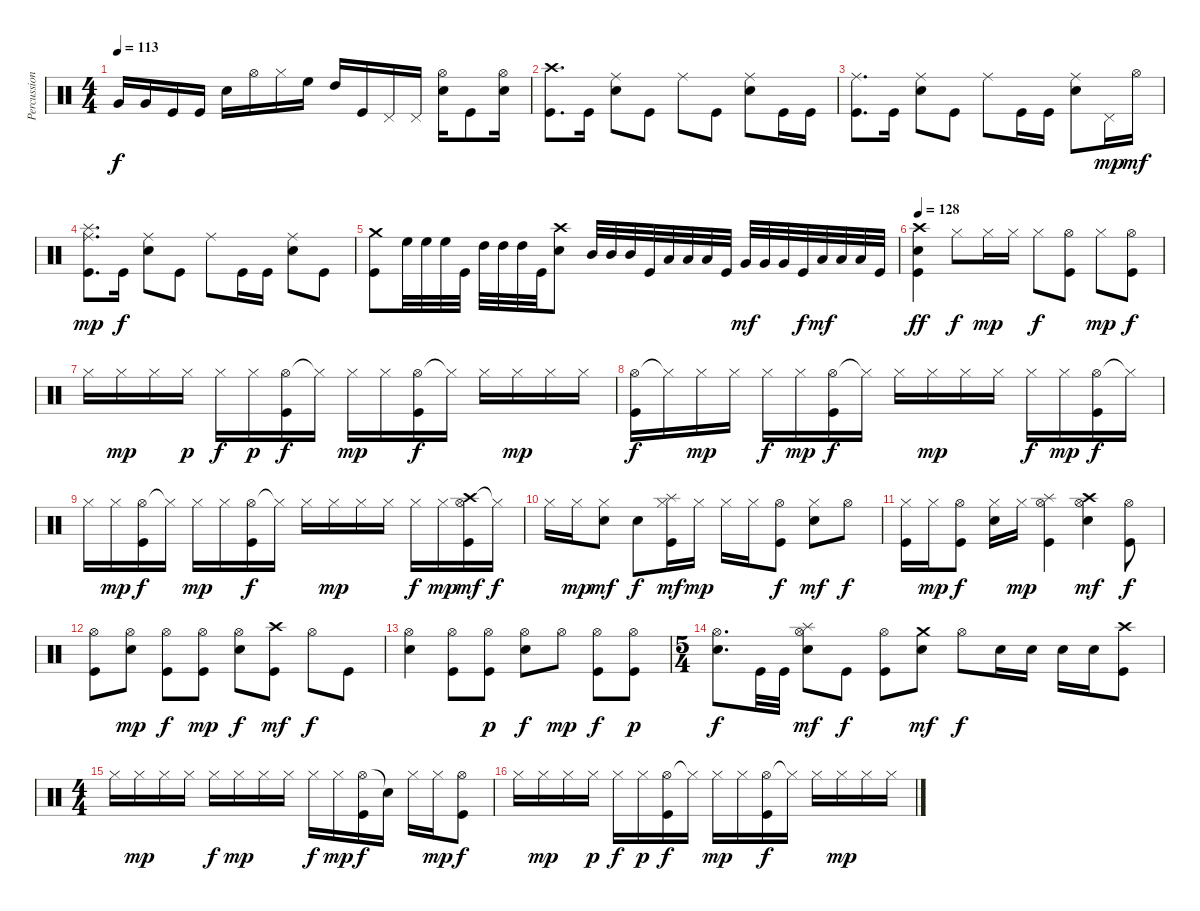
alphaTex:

\track ("Percussioni" "Percussion") {instrument percussion}
\staff {score}
\articulation defaults
\ts (4 4)
\tempo 113
\clef neutral
\ks c "Very Low Tom (hit)".16{dy f} "Very Low Tom (hit)".16 "Kick (hit)".16 "Kick (hit)".16 "Snare (hit) 2".16 "Hi-Hat (open)".16 "Hi-Hat (closed)".16 "High Floor Tom (hit)".16 "High Tom (hit)".16 "Kick (hit)".16 "Pedal Hi-Hat (hit)".16 "Pedal Hi-Hat (hit)".16
("Hi-Hat (open)" "Snare (hit) 2").16 "Kick (hit)".8 ("Hi-Hat (open)" "Snare (hit) 2").16 |
("Crash high (hit)" "Kick (hit)").8{d} "Kick (hit)".16 ("Ride (middle)" "Snare (hit) 2").8 "Kick (hit)".8 "Ride (middle)".8 "Kick (hit)".8 ("Ride (middle)" "Snare (hit) 2").8 "Kick (hit)".16 "Kick (hit)".16 |
("Ride (middle)" "Kick (hit)").8{d} "Kick (hit)".16 ("Ride (middle)" "Snare (hit) 2").8 "Kick (hit)".8 "Ride (middle)".8 "Kick (hit)".16 "Kick (hit)".16 ("Ride (middle)" "Snare (hit) 2").8 "Pedal Hi-Hat (hit)".16{dy mp} "Hi-Hat (open)".16{dy mf} |
("Splash (hit)" "Ride (middle)" "Kick (hit)").8{d dy mp} "Kick (hit)".16{dy f} ("Ride (middle)" "Snare (hit) 2").8 "Kick (hit)".8 "Ride (middle)".8 "Kick (hit)".16 "Kick (hit)".16 ("Ride (middle)" "Snare (hit) 2").8 "Kick (hit)".8 |
("Crash medium (hit)" "Kick (hit)").8 "High Floor Tom (hit)".32 "High Floor Tom (hit)".32 "High Floor Tom (hit)".32 "Kick (hit)".32 "High Tom (hit)".32 "High Tom (hit)".32 "High Tom (hit)".32 "Kick (hit)".32 ("Crash high (hit)" "Snare (hit) 2").8 "Mid Tom (hit)".32 "Mid Tom (hit)".32 "Mid Tom (hit)".32 "Kick (hit)".32 "Low Tom (hit)".32 "Low Tom (hit)".32 "Low Tom (hit)".32 "Kick (hit)".32 "Very Low Tom (hit)".32{dy mf} "Very Low Tom (hit)".32 "Very Low Tom (hit)".32 "Kick (hit)".32{dy f} "Low Floor Tom (hit)".32{dy mf} "Low Floor Tom (hit)".32 "Low Floor Tom (hit)".32 "Kick (hit)".32 |
\tempo 128
("Crash high (hit)" "Snare (hit) 2" "Kick (hit)").4{dy ff} "Hi-Hat (closed)".8{dy f} "Hi-Hat (closed)".16{dy mp} "Hi-Hat (closed)".16 "Hi-Hat (closed)".8{dy f} ("Hi-Hat (open)" "Kick (hit)").8 "Hi-Hat (closed)".8{dy mp} ("Hi-Hat (open)" "Kick (hit)").8{dy f} |
"Hi-Hat (closed)".16 "Hi-Hat (closed)".16{dy mp} "Hi-Hat (closed)".16 "Hi-Hat (closed)".16{dy p} "Hi-Hat (closed)".16{dy f} "Hi-Hat (closed)".16{dy p} ("Hi-Hat (open)" "Kick (hit)").16{dy f} "Hi-Hat (closed)"{t}.16 "Hi-Hat (closed)".16{dy mp} "Hi-Hat (closed)".16 ("Hi-Hat (open)" "Kick (hit)").16{dy f} "Hi-Hat (closed)"{t}.16 "Hi-Hat (closed)".16 "Hi-Hat (closed)".16{dy mp} "Hi-Hat (closed)".16 "Hi-Hat (closed)".16 |
("Hi-Hat (open)" "Kick (hit)").16{dy f} "Hi-Hat (closed)"{t}.16 "Hi-Hat (closed)".16{dy mp} "Hi-Hat (closed)".16 "Hi-Hat (closed)".16{dy f} "Hi-Hat (closed)".16{dy mp} ("Hi-Hat (open)" "Kick (hit)").16{dy f} "Hi-Hat (closed)"{t}.16 "Hi-Hat (closed)".16 "Hi-Hat (closed)".16{dy mp} "Hi-Hat (closed)".16 "Hi-Hat (closed)".16 "Hi-Hat (closed)".16{dy f} "Hi-Hat (closed)".16{dy mp} ("Hi-Hat (open)" "Kick (hit)").16{dy f} "Hi-Hat (closed)"{t}.16 |
"Hi-Hat (closed)".16 "Hi-Hat (closed)".16{dy mp} ("Hi-Hat (open)" "Kick (hit)").16{dy f} "Hi-Hat (closed)"{t}.16 "Hi-Hat (closed)".16{dy mp} "Hi-Hat (closed)".16 ("Hi-Hat (open)" "Kick (hit)").16{dy f} "Hi-Hat (closed)"{t}.16 "Hi-Hat (closed)".16 "Hi-Hat (closed)".16{dy mp} "Hi-Hat (closed)".16 "Hi-Hat (closed)".16 "Hi-Hat (closed)".16{dy f} "Hi-Hat (closed)".16{dy mp} ("Crash high (hit)" "Hi-Hat (open)" "Kick (hit)").16{dy mf} "Hi-Hat (closed)"{t}.16{dy f} |
"Hi-Hat (closed)".16 "Hi-Hat (closed)".16{dy mp} ("Hi-Hat (closed)" "Snare (hit) 2").8{dy mf} "Snare (hit) 2".8{dy f} ("Splash (hit)" "Hi-Hat (closed)" "Kick (hit)").16{dy mf} "Hi-Hat (closed)".16{dy mp} "Hi-Hat (closed)".16 "Hi-Hat (closed)".16 ("Hi-Hat (open)" "Kick (hit)").8{dy f} ("Hi-Hat (closed)" "Snare (hit) 2").8{dy mf} "Hi-Hat (open)".8{dy f} |
("Hi-Hat (closed)" "Kick (hit)").16 "Hi-Hat (closed)".16{dy mp} ("Hi-Hat (open)" "Kick (hit)").8{dy f} ("Hi-Hat (closed)" "Snare (hit) 2").16 "Hi-Hat (closed)".16{dy mp} ("Splash (hit)" "Hi-Hat (open)" "Kick (hit)").4 ("Crash high (hit)" "Hi-Hat (open)" "Snare (hit) 2").4{dy mf} ("Hi-Hat (open)" "Kick (hit)").8{dy f} |
("Hi-Hat (open)" "Kick (hit)").8 ("Hi-Hat (open)" "Snare (hit) 2").8{dy mp} ("Hi-Hat (open)" "Kick (hit)").8{dy f} ("Hi-Hat (open)" "Kick (hit)").8{dy mp} ("Hi-Hat (open)" "Snare (hit) 2").8{dy f} ("Crash high (hit)" "Kick (hit)").8{dy mf} "Hi-Hat (open)".8{dy f} "Kick (hit)".8 |
("Hi-Hat (open)" "Snare (hit) 2").4 ("Hi-Hat (open)" "Kick (hit)").8 ("Hi-Hat (open)" "Kick (hit)").8{dy p} ("Hi-Hat (open)" "Snare (hit) 2").8{dy f} "Hi-Hat (open)".8{dy mp} ("Hi-Hat (open)" "Kick (hit)").8{dy f} ("Hi-Hat (open)" "Kick (hit)").8{dy p} |
\ts (5 4)
("Hi-Hat (open)" "Snare (hit) 2").8{d dy f} "Kick (hit)".32 "Kick (hit)".32 ("Splash (hit)" "Hi-Hat (open)" "Snare (hit) 2").8{dy mf} "Kick (hit)".8{dy f} ("Hi-Hat (open)" "Kick (hit)").8 ("Crash medium (hit)" "Snare (hit) 2").8{dy mf} "Hi-Hat (open)".8{dy f} "Snare (hit) 2".16 "Snare (hit) 2".16 "Snare (hit) 2".16 "Snare (hit) 2".16 ("Crash high (hit)" "Kick (hit)").8 |
\ts (4 4)
"Hi-Hat (closed)".16 "Hi-Hat (closed)".16{dy mp} "Hi-Hat (closed)".16 "Hi-Hat (closed)".16 "Hi-Hat (closed)".16{dy f} "Hi-Hat (closed)".16{dy mp} "Hi-Hat (closed)".16 "Hi-Hat (closed)".16 "Hi-Hat (closed)".16{dy f} "Hi-Hat (closed)".16{dy mp} ("Hi-Hat (open)" "Kick (hit)").16{dy f} "Snare (hit)"{t}.16 "Hi-Hat (closed)".16 "Hi-Hat (closed)".16{dy mp} ("Hi-Hat (open)" "Kick (hit)").8{dy f} |
"Hi-Hat (closed)".16 "Hi-Hat (closed)".16{dy mp} "Hi-Hat (closed)".16 "Hi-Hat (closed)".16{dy p} "Hi-Hat (closed)".16{dy f} "Hi-Hat (closed)".16{dy p} ("Hi-Hat (open)" "Kick (hit)").16{dy f} "Hi-Hat (closed)"{t}.16 "Hi-Hat (closed)".16{dy mp} "Hi-Hat (closed)".16 ("Hi-Hat (open)" "Kick (hit)").16{dy f} "Hi-Hat (closed)"{t}.16 "Hi-Hat (closed)".16 "Hi-Hat (closed)".16{dy mp} "Hi-Hat (closed)".16 "Hi-Hat (closed)".16
